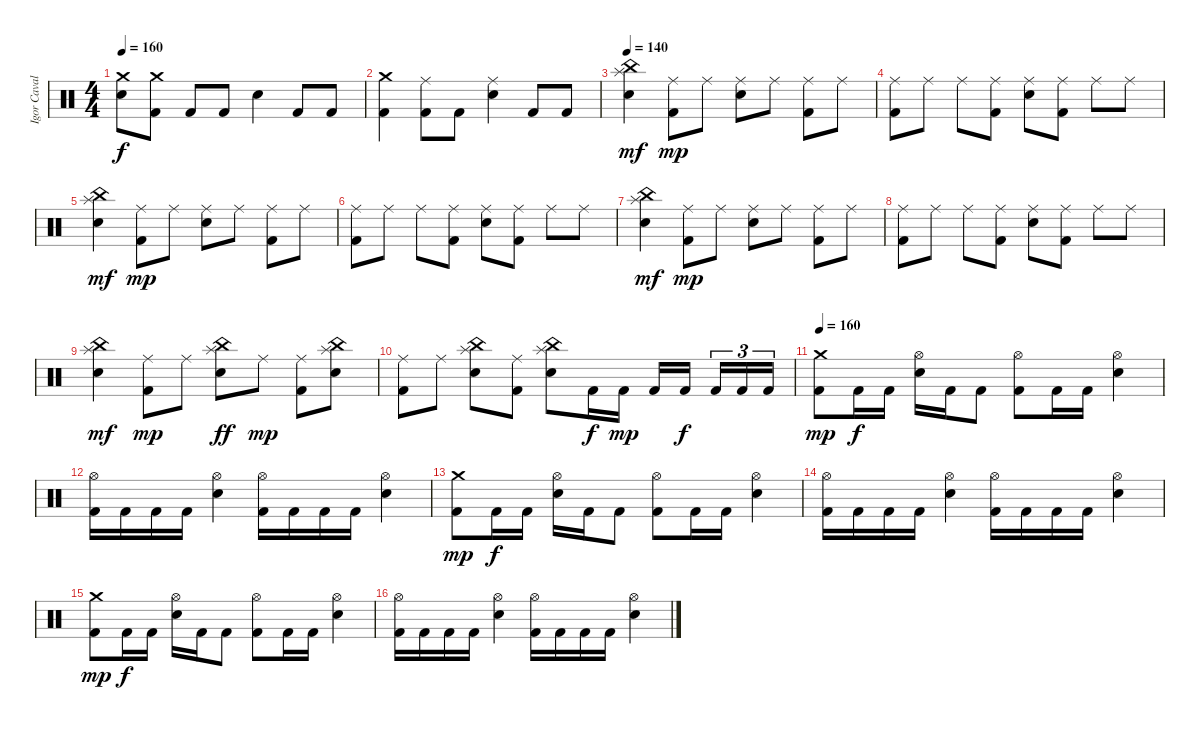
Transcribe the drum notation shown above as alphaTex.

\track ("Igor Cavalera" "Igor Caval") {instrument percussion}
\staff {score}
\articulation defaults
\ts (4 4)
\tempo 160
\clef neutral
\ks c
("Electric Snare (hit)" "Crash medium (hit)").8{dy f} ("Kick (hit) 2" "Crash medium (hit)").8 "Kick (hit) 2".8 "Kick (hit) 2".8 "Electric Snare (hit)".4 "Kick (hit) 2".8 "Kick (hit) 2".8 |
("Crash medium (hit)" "Kick (hit) 2").4 ("Kick (hit) 2" "Ride (middle)").8 "Kick (hit) 2".8 ("Electric Snare (hit)" "Ride (middle)").4 "Kick (hit) 2".8 "Kick (hit) 2".8 |
\tempo 140
("Splash (hit)" "Electric Snare (hit)" "China (hit)").4{dy mf} ("Kick (hit) 2" "Ride (middle)").8{dy mp} "Ride (middle)".8 ("Electric Snare (hit)" "Ride (middle)").8 "Ride (middle)".8 ("Kick (hit) 2" "Ride (middle)").8 "Ride (middle)".8 |
("Kick (hit) 2" "Ride (middle)").8 "Ride (middle)".8 "Ride (middle)".8 ("Kick (hit) 2" "Ride (middle)").8 ("Electric Snare (hit)" "Ride (middle)").8 ("Kick (hit) 2" "Ride (middle)").8 "Ride (middle)".8 "Ride (middle)".8 |
("Splash (hit)" "Electric Snare (hit)" "China (hit)").4{dy mf} ("Kick (hit) 2" "Ride (middle)").8{dy mp} "Ride (middle)".8 ("Electric Snare (hit)" "Ride (middle)").8 "Ride (middle)".8 ("Kick (hit) 2" "Ride (middle)").8 "Ride (middle)".8 |
("Kick (hit) 2" "Ride (middle)").8 "Ride (middle)".8 "Ride (middle)".8 ("Kick (hit) 2" "Ride (middle)").8 ("Electric Snare (hit)" "Ride (middle)").8 ("Kick (hit) 2" "Ride (middle)").8 "Ride (middle)".8 "Ride (middle)".8 |
("Splash (hit)" "Electric Snare (hit)" "China (hit)").4{dy mf} ("Kick (hit) 2" "Ride (middle)").8{dy mp} "Ride (middle)".8 ("Electric Snare (hit)" "Ride (middle)").8 "Ride (middle)".8 ("Kick (hit) 2" "Ride (middle)").8 "Ride (middle)".8 |
("Kick (hit) 2" "Ride (middle)").8 "Ride (middle)".8 "Ride (middle)".8 ("Kick (hit) 2" "Ride (middle)").8 ("Electric Snare (hit)" "Ride (middle)").8 ("Kick (hit) 2" "Ride (middle)").8 "Ride (middle)".8 "Ride (middle)".8 |
("Splash (hit)" "Electric Snare (hit)" "China (hit)").4{dy mf} ("Kick (hit) 2" "Ride (middle)").8{dy mp} "Ride (middle)".8 ("China (hit)" "Splash (hit)" "Electric Snare (hit)").8{dy ff} "Ride (middle)".8{dy mp} ("Kick (hit) 2" "Ride (middle)").8 ("China (hit)" "Splash (hit)" "Electric Snare (hit)").8 |
("Kick (hit) 2" "Ride (middle)").8 "Ride (middle)".8 ("China (hit)" "Electric Snare (hit)" "Splash (hit)").8 ("Kick (hit) 2" "Ride (middle)").8 ("China (hit)" "Electric Snare (hit)" "Splash (hit)").8 "Kick (hit) 2".16{dy f} "Kick (hit) 2".16{dy mp} "Kick (hit) 2".16 "Kick (hit) 2".16{dy f} "Kick (hit) 2".16{tu (3 2)} "Kick (hit) 2".16{tu (3 2)} "Kick (hit) 2".16{tu (3 2)} |
\tempo 160
("Kick (hit) 2" "Crash medium (hit)").8{dy mp} "Kick (hit) 2".16{dy f} "Kick (hit) 2".16 ("Hi-Hat (open)" "Electric Snare (hit)").16 "Kick (hit) 2".16 "Kick (hit) 2".8 ("Hi-Hat (open)" "Kick (hit) 2").8 "Kick (hit) 2".16 "Kick (hit) 2".16 ("Electric Snare (hit)" "Hi-Hat (open)").4 |
("Hi-Hat (open)" "Kick (hit) 2").16 "Kick (hit) 2".16 "Kick (hit) 2".16 "Kick (hit) 2".16 ("Hi-Hat (open)" "Electric Snare (hit)").4 ("Hi-Hat (open)" "Kick (hit) 2").16 "Kick (hit) 2".16 "Kick (hit) 2".16 "Kick (hit) 2".16 ("Hi-Hat (open)" "Electric Snare (hit)").4 |
("Kick (hit) 2" "Crash medium (hit)").8{dy mp} "Kick (hit) 2".16{dy f} "Kick (hit) 2".16 ("Hi-Hat (open)" "Electric Snare (hit)").16 "Kick (hit) 2".16 "Kick (hit) 2".8 ("Hi-Hat (open)" "Kick (hit) 2").8 "Kick (hit) 2".16 "Kick (hit) 2".16 ("Electric Snare (hit)" "Hi-Hat (open)").4 |
("Hi-Hat (open)" "Kick (hit) 2").16 "Kick (hit) 2".16 "Kick (hit) 2".16 "Kick (hit) 2".16 ("Hi-Hat (open)" "Electric Snare (hit)").4 ("Hi-Hat (open)" "Kick (hit) 2").16 "Kick (hit) 2".16 "Kick (hit) 2".16 "Kick (hit) 2".16 ("Hi-Hat (open)" "Electric Snare (hit)").4 |
("Kick (hit) 2" "Crash medium (hit)").8{dy mp} "Kick (hit) 2".16{dy f} "Kick (hit) 2".16 ("Hi-Hat (open)" "Electric Snare (hit)").16 "Kick (hit) 2".16 "Kick (hit) 2".8 ("Hi-Hat (open)" "Kick (hit) 2").8 "Kick (hit) 2".16 "Kick (hit) 2".16 ("Electric Snare (hit)" "Hi-Hat (open)").4 |
("Hi-Hat (open)" "Kick (hit) 2").16 "Kick (hit) 2".16 "Kick (hit) 2".16 "Kick (hit) 2".16 ("Hi-Hat (open)" "Electric Snare (hit)").4 ("Hi-Hat (open)" "Kick (hit) 2").16 "Kick (hit) 2".16 "Kick (hit) 2".16 "Kick (hit) 2".16 ("Hi-Hat (open)" "Electric Snare (hit)").4
